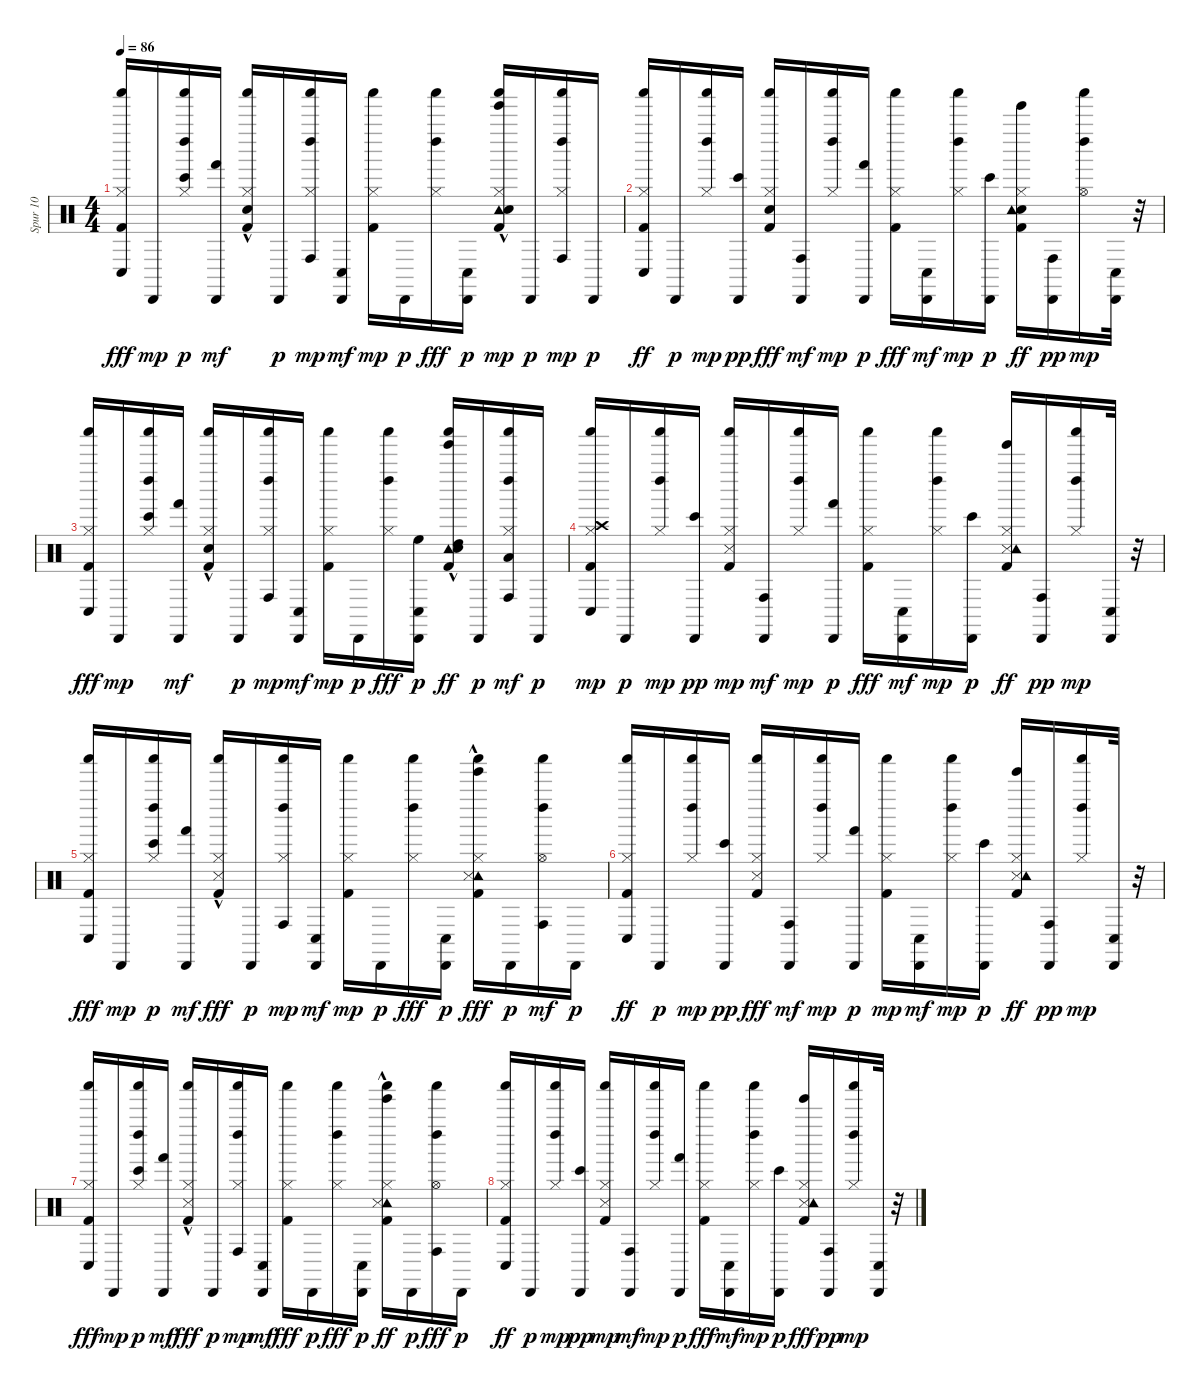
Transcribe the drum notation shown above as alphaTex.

\track ("Spur 10" "Spur 10") {instrument percussion}
\staff {score}
\articulation defaults
\ts (4 4)
\tempo 86
\clef neutral
\ks c
("Hi-Hat (closed)" "Kick (hit) 2" "Shaker (hit)" "Conga low (hit)").16{dy fff} "Cabasa (hit)".16{dy mp} ("Hi-Hat (closed)" "Shaker (hit)" "Bongo High (hit)" "Left Maraca (hit)").16{dy p} ("Cabasa (hit)" "Hand (hit)").16{dy mf} ("Snare (hit) 2"{hac} "Shaker (hit)" "Kick (hit) 2" "Hi-Hat (closed)").16 "Cabasa (hit)".16{dy p} ("Conga high (hit)" "Shaker (hit)" "Hi-Hat (closed)" "Left Maraca (hit)").16{dy mp} ("Cabasa (hit)" "Conga low (hit)").16{dy mf} ("Shaker (hit)" "Kick (hit) 2" "Hi-Hat (closed)").16{dy mp} "Cabasa (hit)".16{dy p} ("Shaker (hit)" "Hi-Hat (closed)" "Left Maraca (hit)").16{dy fff} ("Cabasa (hit)" "Conga low (hit)").16{dy p} ("Tinkle Bell (hit)"{hac} "Tambourine (hit)"{hac} "Shaker (hit)" "Kick (hit) 2" "Snare (hit) 2"{hac} "Hi-Hat (closed)").16{dy mp} "Cabasa (hit)".16{dy p} ("Shaker (hit)" "Conga high (hit)" "Hi-Hat (closed)" "Left Maraca (hit)").16{dy mp} "Cabasa (hit)".16{dy p} |
("Hi-Hat (closed)" "Shaker (hit)" "Kick (hit) 2" "Conga low (hit)").16{dy ff} "Cabasa (hit)".16{dy p} ("Hi-Hat (closed)" "Shaker (hit)" "Left Maraca (hit)").16{dy mp} ("Bongo High (hit)" "Cabasa (hit)").16{dy pp} ("Hi-Hat (closed)" "Shaker (hit)" "Kick (hit) 2" "Snare (hit) 2").16{dy fff} ("Cabasa (hit)" "Conga high (hit)").16{dy mf} ("Shaker (hit)" "Hi-Hat (closed)" "Left Maraca (hit)").16{dy mp} ("Hand (hit)" "Cabasa (hit)").16{dy p} ("Hi-Hat (closed)" "Shaker (hit)" "Kick (hit) 2").16{dy fff} ("Cabasa (hit)" "Conga low (hit)").16{dy mf} ("Shaker (hit)" "Hi-Hat (closed)" "Left Maraca (hit)").16{dy mp} ("Bongo High (hit)" "Cabasa (hit)").16{dy p} ("Kick (hit) 2" "Snare (hit) 2" "Tambourine (hit)" "Tinkle Bell (hit)" "Hi-Hat (closed)").16{dy ff} ("Conga high (hit)" "Cabasa (hit)").16{dy pp} ("Hi-Hat (open)" "Shaker (hit)" "Left Maraca (hit)").16{dy mp} ("Conga low (hit)" "Cabasa (hit)").32 r.32 |
("Hi-Hat (closed)" "Kick (hit) 2" "Shaker (hit)" "Conga low (hit)").16{dy fff} "Cabasa (hit)".16{dy mp} ("Shaker (hit)" "Bongo High (hit)" "Hi-Hat (closed)" "Left Maraca (hit)").16 ("Cabasa (hit)" "Hand (hit)").16{dy mf} ("Snare (hit) 2"{hac} "Shaker (hit)" "Kick (hit) 2" "Hi-Hat (closed)").16 "Cabasa (hit)".16{dy p} ("Conga high (hit)" "Shaker (hit)" "Hi-Hat (closed)" "Left Maraca (hit)").16{dy mp} ("Cabasa (hit)" "Conga low (hit)").16{dy mf} ("Shaker (hit)" "Kick (hit) 2" "Hi-Hat (closed)").16{dy mp} "Cabasa (hit)".16{dy p} ("Shaker (hit)" "Hi-Hat (closed)" "Left Maraca (hit)").16{dy fff} ("High Floor Tom (hit)" "Cabasa (hit)" "Conga low (hit)").16{dy p} ("High Tom (hit)" "Tambourine (hit)"{hac} "Shaker (hit)" "Kick (hit) 2" "Snare (hit) 2"{hac} "Tinkle Bell (hit)").16{dy ff} "Cabasa (hit)".16{dy p} ("Shaker (hit)" "Conga high (hit)" "Low Tom (hit)" "Hi-Hat (closed)" "Left Maraca (hit)").16{dy mf} "Cabasa (hit)".16{dy p} |
("Shaker (hit)" "Kick (hit) 2" "Conga low (hit)" "Crash high (hit)" "Hi-Hat (closed)").16{dy mp} "Cabasa (hit)".16{dy p} ("Hi-Hat (closed)" "Shaker (hit)" "Left Maraca (hit)").16{dy mp} ("Bongo High (hit)" "Cabasa (hit)").16{dy pp} ("Shaker (hit)" "Kick (hit) 2" "Snare (side stick) 3" "Hi-Hat (closed)").16{dy mp} ("Cabasa (hit)" "Conga high (hit)").16{dy mf} ("Shaker (hit)" "Hi-Hat (closed)" "Left Maraca (hit)").16{dy mp} ("Hand (hit)" "Cabasa (hit)").16{dy p} ("Hi-Hat (closed)" "Shaker (hit)" "Kick (hit) 2").16{dy fff} ("Cabasa (hit)" "Conga low (hit)").16{dy mf} ("Shaker (hit)" "Hi-Hat (closed)" "Left Maraca (hit)").16{dy mp} ("Bongo High (hit)" "Cabasa (hit)").16{dy p} ("Hi-Hat (closed)" "Snare (side stick) 3" "Kick (hit) 2" "Tambourine (hit)" "Tinkle Bell (hit)").16{dy ff} ("Conga high (hit)" "Cabasa (hit)").16{dy pp} ("Shaker (hit)" "Hi-Hat (closed)" "Left Maraca (hit)").16{dy mp} ("Conga low (hit)" "Cabasa (hit)").32 r.32 |
("Hi-Hat (closed)" "Kick (hit) 2" "Shaker (hit)" "Conga low (hit)").16{dy fff} "Cabasa (hit)".16{dy mp} ("Hi-Hat (closed)" "Shaker (hit)" "Bongo High (hit)" "Left Maraca (hit)").16{dy p} ("Cabasa (hit)" "Hand (hit)").16{dy mf} ("Hi-Hat (closed)" "Snare (side stick) 3"{hac} "Shaker (hit)" "Kick (hit) 2").16{dy fff} "Cabasa (hit)".16{dy p} ("Conga high (hit)" "Shaker (hit)" "Hi-Hat (closed)" "Left Maraca (hit)").16{dy mp} ("Cabasa (hit)" "Conga low (hit)").16{dy mf} ("Shaker (hit)" "Kick (hit) 2" "Hi-Hat (closed)").16{dy mp} "Cabasa (hit)".16{dy p} ("Shaker (hit)" "Hi-Hat (closed)" "Left Maraca (hit)").16{dy fff} ("Cabasa (hit)" "Conga low (hit)").16{dy p} ("Tinkle Bell (hit)" "Tambourine (hit)"{hac} "Shaker (hit)" "Kick (hit) 2" "Snare (side stick) 3"{hac} "Hi-Hat (closed)").16{dy fff} "Cabasa (hit)".16{dy p} ("Shaker (hit)" "Conga high (hit)" "Hi-Hat (open)" "Left Maraca (hit)").16{dy mf} "Cabasa (hit)".16{dy p} |
("Hi-Hat (closed)" "Shaker (hit)" "Kick (hit) 2" "Conga low (hit)").16{dy ff} "Cabasa (hit)".16{dy p} ("Shaker (hit)" "Hi-Hat (closed)" "Left Maraca (hit)").16{dy mp} ("Bongo High (hit)" "Cabasa (hit)").16{dy pp} ("Hi-Hat (closed)" "Shaker (hit)" "Kick (hit) 2" "Snare (side stick) 3").16{dy fff} ("Cabasa (hit)" "Conga high (hit)").16{dy mf} ("Hi-Hat (closed)" "Shaker (hit)" "Left Maraca (hit)").16{dy mp} ("Hand (hit)" "Cabasa (hit)").16{dy p} ("Shaker (hit)" "Kick (hit) 2" "Hi-Hat (closed)").16{dy mp} ("Cabasa (hit)" "Conga low (hit)").16{dy mf} ("Shaker (hit)" "Hi-Hat (closed)" "Left Maraca (hit)").16{dy mp} ("Bongo High (hit)" "Cabasa (hit)").16{dy p} ("Hi-Hat (closed)" "Snare (side stick) 3" "Kick (hit) 2" "Tambourine (hit)" "Tinkle Bell (hit)").16{dy ff} ("Conga high (hit)" "Cabasa (hit)").16{dy pp} ("Shaker (hit)" "Hi-Hat (closed)" "Left Maraca (hit)").16{dy mp} ("Conga low (hit)" "Cabasa (hit)").32 r.32 |
("Hi-Hat (closed)" "Kick (hit) 2" "Shaker (hit)" "Conga low (hit)").16{dy fff} "Cabasa (hit)".16{dy mp} ("Hi-Hat (closed)" "Shaker (hit)" "Bongo High (hit)" "Left Maraca (hit)").16{dy p} ("Cabasa (hit)" "Hand (hit)").16{dy mf} ("Hi-Hat (closed)" "Snare (side stick) 3"{hac} "Shaker (hit)" "Kick (hit) 2").16{dy fff} "Cabasa (hit)".16{dy p} ("Conga high (hit)" "Shaker (hit)" "Hi-Hat (closed)" "Left Maraca (hit)").16{dy mp} ("Cabasa (hit)" "Conga low (hit)").16{dy mf} ("Hi-Hat (closed)" "Shaker (hit)" "Kick (hit) 2").16{dy fff} "Cabasa (hit)".16{dy p} ("Shaker (hit)" "Hi-Hat (closed)" "Left Maraca (hit)").16{dy fff} ("Cabasa (hit)" "Conga low (hit)").16{dy p} ("Hi-Hat (closed)" "Tambourine (hit)"{hac} "Shaker (hit)" "Kick (hit) 2" "Snare (side stick) 3"{hac} "Tinkle Bell (hit)"{hac}).16{dy ff} "Cabasa (hit)".16{dy p} ("Hi-Hat (open)" "Shaker (hit)" "Conga high (hit)" "Left Maraca (hit)").16{dy fff} "Cabasa (hit)".16{dy p} |
("Hi-Hat (closed)" "Shaker (hit)" "Kick (hit) 2" "Conga low (hit)").16{dy ff} "Cabasa (hit)".16{dy p} ("Shaker (hit)" "Hi-Hat (closed)" "Left Maraca (hit)").16{dy mp} ("Bongo High (hit)" "Cabasa (hit)").16{dy pp} ("Shaker (hit)" "Kick (hit) 2" "Snare (side stick) 3" "Hi-Hat (closed)").16{dy mp} ("Cabasa (hit)" "Conga high (hit)").16{dy mf} ("Shaker (hit)" "Hi-Hat (closed)" "Left Maraca (hit)").16{dy mp} ("Hand (hit)" "Cabasa (hit)").16{dy p} ("Hi-Hat (closed)" "Shaker (hit)" "Kick (hit) 2").16{dy fff} ("Cabasa (hit)" "Conga low (hit)").16{dy mf} ("Hi-Hat (closed)" "Shaker (hit)" "Left Maraca (hit)").16{dy mp} ("Bongo High (hit)" "Cabasa (hit)").16{dy p} ("Hi-Hat (closed)" "Tinkle Bell (hit)" "Kick (hit) 2" "Snare (side stick) 3" "Tambourine (hit)").16{dy fff} ("Conga high (hit)" "Cabasa (hit)").16{dy pp} ("Hi-Hat (closed)" "Shaker (hit)" "Left Maraca (hit)").16{dy mp} ("Conga low (hit)" "Cabasa (hit)").32 r.32
